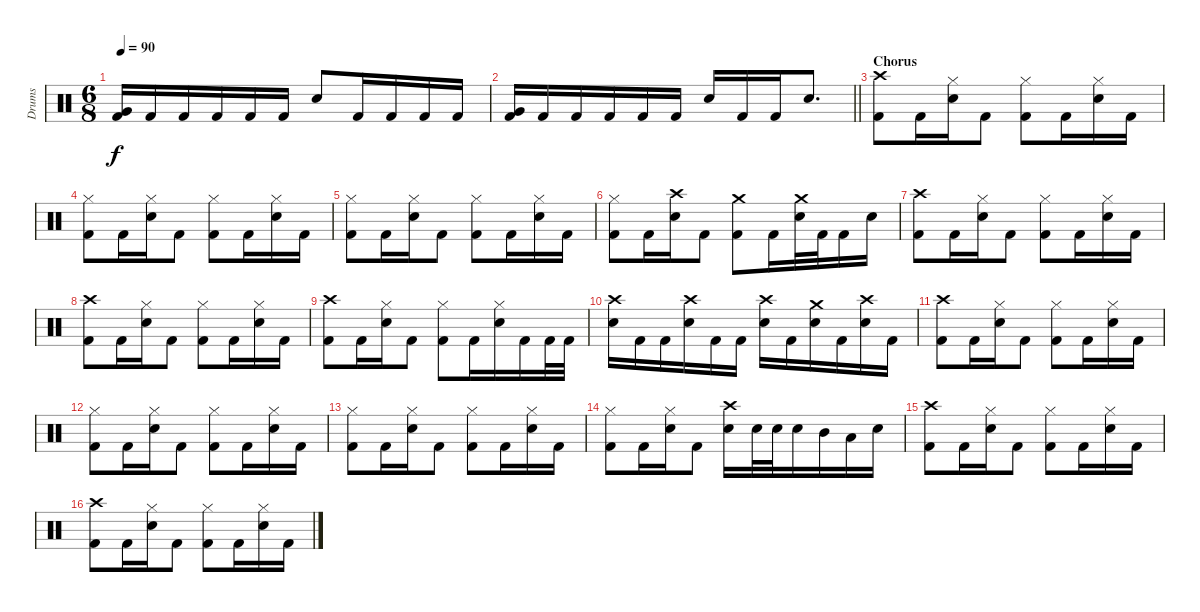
\track ("Drums" "Drums") {instrument percussion}
\staff {score}
\articulation defaults
\ts (6 8)
\tempo 90
\clef neutral
\ks c
("Kick (hit) 2" "Very Low Tom (hit)").16{dy f} "Kick (hit) 2".16 "Kick (hit) 2".16 "Kick (hit) 2".16 "Kick (hit) 2".16 "Kick (hit) 2".16 "Snare (hit) 2".8 "Kick (hit) 2".16 "Kick (hit) 2".16 "Kick (hit) 2".16 "Kick (hit) 2".16 |
\barLineRight lightlight
("Kick (hit) 2" "Very Low Tom (hit)").16 "Kick (hit) 2".16 "Kick (hit) 2".16 "Kick (hit) 2".16 "Kick (hit) 2".16 "Kick (hit) 2".16 "Snare (hit) 2".16 "Kick (hit) 2".16 "Kick (hit) 2".16 "Snare (hit) 2".8{d} |
\section ("" "Chorus")
("Crash high (hit)" "Kick (hit) 2").8 "Kick (hit) 2".16 ("Hi-Hat (closed)" "Snare (hit) 2").16 "Kick (hit) 2".8 ("Hi-Hat (closed)" "Kick (hit) 2").8 "Kick (hit) 2".16 ("Hi-Hat (closed)" "Snare (hit) 2").16 "Kick (hit) 2".16 |
("Hi-Hat (closed)" "Kick (hit) 2").8 "Kick (hit) 2".16 ("Hi-Hat (closed)" "Snare (hit) 2").16 "Kick (hit) 2".8 ("Hi-Hat (closed)" "Kick (hit) 2").8 "Kick (hit) 2".16 ("Hi-Hat (closed)" "Snare (hit) 2").16 "Kick (hit) 2".16 |
("Hi-Hat (closed)" "Kick (hit) 2").8 "Kick (hit) 2".16 ("Hi-Hat (closed)" "Snare (hit) 2").16 "Kick (hit) 2".8 ("Hi-Hat (closed)" "Kick (hit) 2").8 "Kick (hit) 2".16 ("Hi-Hat (closed)" "Snare (hit) 2").16 "Kick (hit) 2".16 |
("Hi-Hat (closed)" "Kick (hit) 2").8 "Kick (hit) 2".16 ("Crash high (hit)" "Snare (hit) 2").16 "Kick (hit) 2".8 ("Crash medium (hit)" "Kick (hit) 2").8 "Kick (hit) 2".16 ("Crash medium (hit)" "Snare (hit) 2").32 "Kick (hit) 2".32 "Kick (hit) 2".16 "Snare (hit) 2".16 |
("Crash high (hit)" "Kick (hit) 2").8 "Kick (hit) 2".16 ("Hi-Hat (closed)" "Snare (hit) 2").16 "Kick (hit) 2".8 ("Hi-Hat (closed)" "Kick (hit) 2").8 "Kick (hit) 2".16 ("Hi-Hat (closed)" "Snare (hit) 2").16 "Kick (hit) 2".16 |
("Crash high (hit)" "Kick (hit) 2").8 "Kick (hit) 2".16 ("Hi-Hat (closed)" "Snare (hit) 2").16 "Kick (hit) 2".8 ("Hi-Hat (closed)" "Kick (hit) 2").8 "Kick (hit) 2".16 ("Hi-Hat (closed)" "Snare (hit) 2").16 "Kick (hit) 2".16 |
("Crash high (hit)" "Kick (hit) 2").8 "Kick (hit) 2".16 ("Hi-Hat (closed)" "Snare (hit) 2").16 "Kick (hit) 2".8 ("Hi-Hat (closed)" "Kick (hit) 2").8 "Kick (hit) 2".16 ("Hi-Hat (closed)" "Snare (hit) 2").16 "Kick (hit) 2".16 "Kick (hit) 2".32 "Kick (hit) 2".32 |
("Crash high (hit)" "Snare (hit) 2").16 "Kick (hit) 2".16 "Kick (hit) 2".16 ("Crash high (hit)" "Snare (hit) 2").16 "Kick (hit) 2".16 "Kick (hit) 2".16 ("Crash high (hit)" "Snare (hit) 2").16 "Kick (hit) 2".16 ("Crash medium (hit)" "Snare (hit) 2").16 "Kick (hit) 2".16 ("Crash high (hit)" "Snare (hit) 2").16 "Kick (hit) 2".16 |
("Crash high (hit)" "Kick (hit) 2").8 "Kick (hit) 2".16 ("Hi-Hat (closed)" "Snare (hit) 2").16 "Kick (hit) 2".8 ("Hi-Hat (closed)" "Kick (hit) 2").8 "Kick (hit) 2".16 ("Hi-Hat (closed)" "Snare (hit) 2").16 "Kick (hit) 2".16 |
("Hi-Hat (closed)" "Kick (hit) 2").8 "Kick (hit) 2".16 ("Hi-Hat (closed)" "Snare (hit) 2").16 "Kick (hit) 2".8 ("Hi-Hat (closed)" "Kick (hit) 2").8 "Kick (hit) 2".16 ("Hi-Hat (closed)" "Snare (hit) 2").16 "Kick (hit) 2".16 |
("Hi-Hat (closed)" "Kick (hit) 2").8 "Kick (hit) 2".16 ("Hi-Hat (closed)" "Snare (hit) 2").16 "Kick (hit) 2".8 ("Hi-Hat (closed)" "Kick (hit) 2").8 "Kick (hit) 2".16 ("Hi-Hat (closed)" "Snare (hit) 2").16 "Kick (hit) 2".16 |
("Hi-Hat (closed)" "Kick (hit) 2").8 "Kick (hit) 2".16 ("Hi-Hat (closed)" "Snare (hit) 2").16 "Kick (hit) 2".8 ("Crash high (hit)" "Snare (hit) 2").16 "Snare (hit) 2".32 "Snare (hit) 2".32 "Snare (hit) 2".16 "Mid Tom (hit)".16 "Low Tom (hit)".16 "Snare (hit) 2".16 |
("Crash high (hit)" "Kick (hit) 2").8 "Kick (hit) 2".16 ("Hi-Hat (closed)" "Snare (hit) 2").16 "Kick (hit) 2".8 ("Hi-Hat (closed)" "Kick (hit) 2").8 "Kick (hit) 2".16 ("Hi-Hat (closed)" "Snare (hit) 2").16 "Kick (hit) 2".16 |
("Crash high (hit)" "Kick (hit) 2").8 "Kick (hit) 2".16 ("Hi-Hat (closed)" "Snare (hit) 2").16 "Kick (hit) 2".8 ("Hi-Hat (closed)" "Kick (hit) 2").8 "Kick (hit) 2".16 ("Hi-Hat (closed)" "Snare (hit) 2").16 "Kick (hit) 2".16
